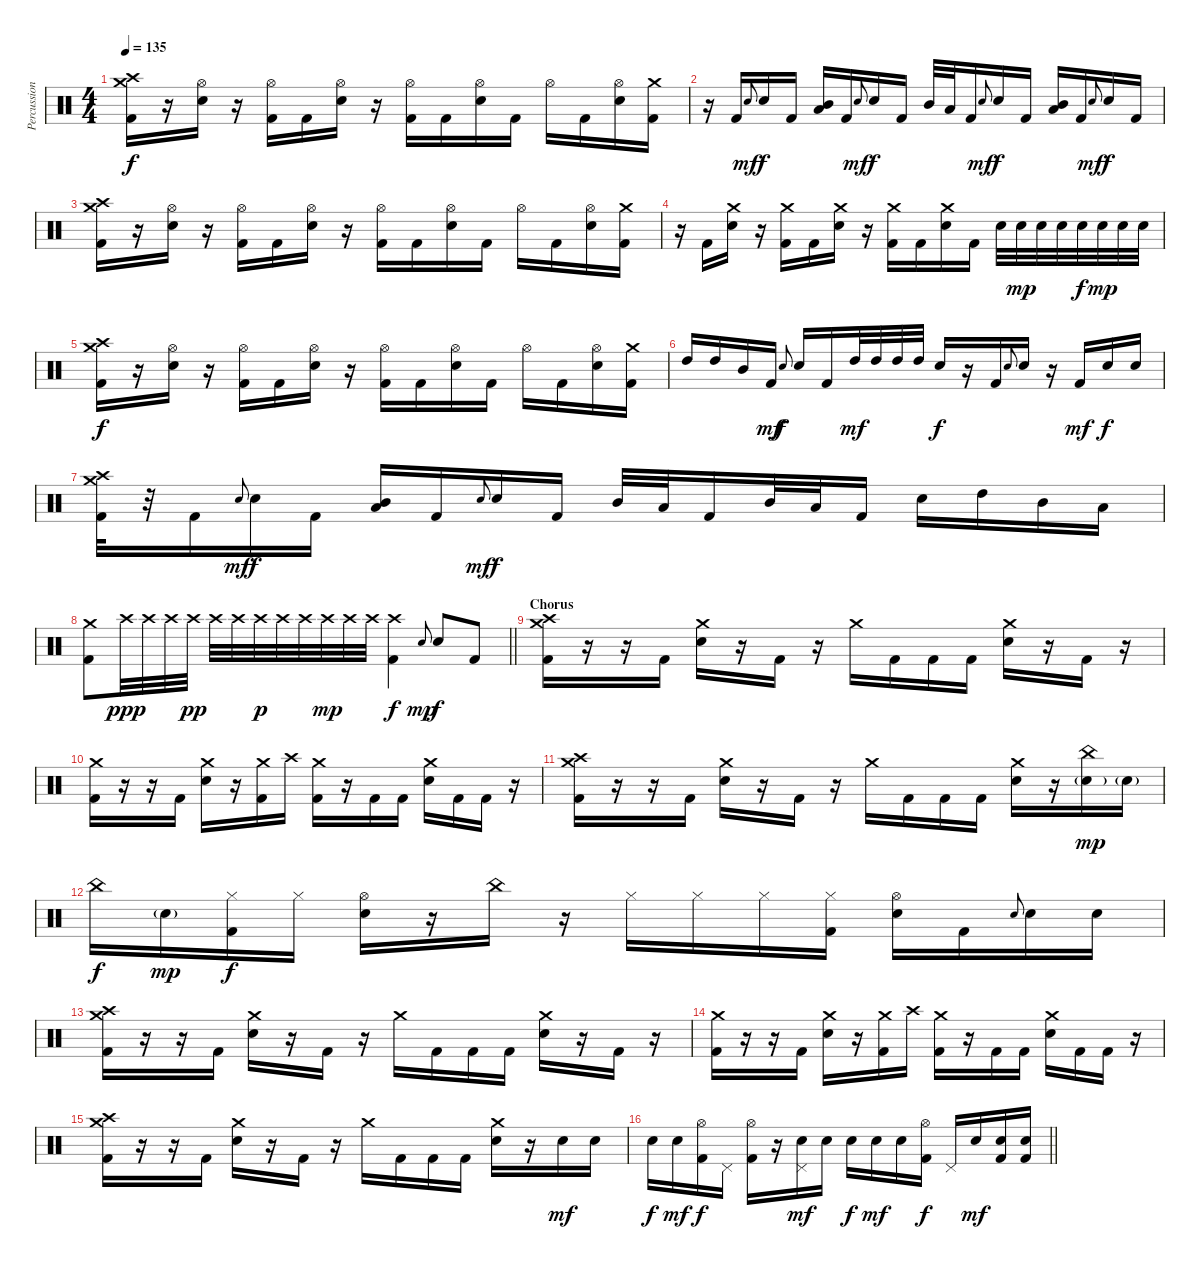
\track ("Percussion" "Percussion") {instrument percussion}
\staff {score}
\articulation defaults
\ts (4 4)
\tempo 135
\clef neutral
\ks c
("Crash high (hit)" "Crash medium (hit)" "Kick (hit) 2").16{dy f} r.16 ("Hi-Hat (open)" "Electric Snare (hit)").16 r.16 ("Hi-Hat (open)" "Kick (hit) 2").16 "Kick (hit) 2".16 ("Hi-Hat (open)" "Electric Snare (hit)").16 r.16 ("Hi-Hat (open)" "Kick (hit) 2").16 "Kick (hit) 2".16 ("Hi-Hat (open)" "Electric Snare (hit)").16 "Kick (hit) 2".16 "Hi-Hat (open)".16 "Kick (hit) 2".16 ("Hi-Hat (open)" "Electric Snare (hit)").16 ("Crash medium (hit)" "Kick (hit) 2").16 |
r.16 "Kick (hit) 2".16 "Electric Snare (hit)".8{gr onbeat dy mf} "Electric Snare (hit)".16{dy f} "Kick (hit) 2".16 ("Mid Tom (hit)" "Low Tom (hit)").16 "Kick (hit) 2".16 "Electric Snare (hit)".8{gr onbeat dy mf} "Electric Snare (hit)".16{dy f} "Kick (hit) 2".16 "Mid Tom (hit)".32 "Low Tom (hit)".32 "Kick (hit) 2".16 "Electric Snare (hit)".8{gr onbeat dy mf} "Electric Snare (hit)".16{dy f} "Kick (hit) 2".16 ("Mid Tom (hit)" "Low Tom (hit)").16 "Kick (hit) 2".16 "Electric Snare (hit)".8{gr onbeat dy mf} "Electric Snare (hit)".16{dy f} "Kick (hit) 2".16 |
("Crash high (hit)" "Crash medium (hit)" "Kick (hit) 2").16 r.16 ("Hi-Hat (open)" "Electric Snare (hit)").16 r.16 ("Hi-Hat (open)" "Kick (hit) 2").16 "Kick (hit) 2".16 ("Hi-Hat (open)" "Electric Snare (hit)").16 r.16 ("Hi-Hat (open)" "Kick (hit) 2").16 "Kick (hit) 2".16 ("Hi-Hat (open)" "Electric Snare (hit)").16 "Kick (hit) 2".16 "Hi-Hat (open)".16 "Kick (hit) 2".16 ("Hi-Hat (open)" "Electric Snare (hit)").16 ("Crash medium (hit)" "Kick (hit) 2").16 |
r.16 "Kick (hit) 2".16 ("Crash medium (hit)" "Electric Snare (hit)").16 r.16 ("Crash medium (hit)" "Kick (hit) 2").16 "Kick (hit) 2".16 ("Crash medium (hit)" "Electric Snare (hit)").16 r.16 ("Crash medium (hit)" "Kick (hit) 2").16 "Kick (hit) 2".16 ("Crash medium (hit)" "Electric Snare (hit)").16 "Kick (hit) 2".16 "Electric Snare (hit)".32 "Electric Snare (hit)".32{dy mp} "Electric Snare (hit)".32 "Electric Snare (hit)".32 "Electric Snare (hit)".32{dy f} "Electric Snare (hit)".32{dy mp} "Electric Snare (hit)".32 "Electric Snare (hit)".32 |
("Crash high (hit)" "Crash medium (hit)" "Kick (hit) 2").16{dy f} r.16 ("Hi-Hat (open)" "Electric Snare (hit)").16 r.16 ("Hi-Hat (open)" "Kick (hit) 2").16 "Kick (hit) 2".16 ("Hi-Hat (open)" "Electric Snare (hit)").16 r.16 ("Hi-Hat (open)" "Kick (hit) 2").16 "Kick (hit) 2".16 ("Hi-Hat (open)" "Electric Snare (hit)").16 "Kick (hit) 2".16 "Hi-Hat (open)".16 "Kick (hit) 2".16 ("Hi-Hat (open)" "Electric Snare (hit)").16 ("Crash medium (hit)" "Kick (hit) 2").16 |
"High Tom (hit)".16 "High Tom (hit)".16 "Mid Tom (hit)".16 "Kick (hit) 2".16{dy mf} "Electric Snare (hit)".8{gr onbeat dy f} "Electric Snare (hit)".16 "Kick (hit) 2".16 "High Tom (hit)".32{dy mf} "High Tom (hit)".32 "High Tom (hit)".32 "High Tom (hit)".32 "Electric Snare (hit)".16{dy f} r.16 "Kick (hit) 2".16 "Electric Snare (hit)".8{gr onbeat} "Electric Snare (hit)".16 r.16 "Kick (hit) 2".16{dy mf} "Electric Snare (hit)".16{dy f} "Electric Snare (hit)".16 |
("Crash high (hit)" "Crash medium (hit)" "Kick (hit) 2").32 r.32 "Kick (hit) 2".16 "Electric Snare (hit)".8{gr onbeat dy mf} "Electric Snare (hit)".16{dy f} "Kick (hit) 2".16 ("Mid Tom (hit)" "Low Tom (hit)").16 "Kick (hit) 2".16 "Electric Snare (hit)".8{gr onbeat dy mf} "Electric Snare (hit)".16{dy f} "Kick (hit) 2".16 "Mid Tom (hit)".32 "Low Tom (hit)".32 "Kick (hit) 2".16 "Mid Tom (hit)".32 "Low Tom (hit)".32 "Kick (hit) 2".16 "Electric Snare (hit)".16 "High Tom (hit)".16 "Mid Tom (hit)".16 "Low Tom (hit)".16 |
\barLineRight lightlight
("Crash medium (hit)" "Kick (hit) 2").8 "Crash high (hit)".32{dy ppp} "Crash high (hit)".32 "Crash high (hit)".32 "Crash high (hit)".32{dy pp} "Crash high (hit)".32 "Crash high (hit)".32 "Crash high (hit)".32{dy p} "Crash high (hit)".32 "Crash high (hit)".32 "Crash high (hit)".32{dy mp} "Crash high (hit)".32 "Crash high (hit)".32 ("Crash high (hit)" "Kick (hit) 2").4{dy f} "Electric Snare (hit)".8{gr onbeat dy mp} "Electric Snare (hit)".8{dy f} "Kick (hit) 2".8 |
\section ("" "Chorus")
("Crash medium (hit)" "Crash high (hit)" "Kick (hit) 2").16 r.16 r.16 "Kick (hit) 2".16 ("Crash medium (hit)" "Electric Snare (hit)").16 r.16 "Kick (hit) 2".16 r.16 "Crash medium (hit)".16 "Kick (hit) 2".16 "Kick (hit) 2".16 "Kick (hit) 2".16 ("Crash medium (hit)" "Electric Snare (hit)").16 r.16 "Kick (hit) 2".16 r.16 |
("Crash medium (hit)" "Kick (hit) 2").16 r.16 r.16 "Kick (hit) 2".16 ("Crash medium (hit)" "Electric Snare (hit)").16 r.16 ("Crash medium (hit)" "Kick (hit) 2").16 "Crash high (hit)".16 ("Crash medium (hit)" "Kick (hit) 2").16 r.16 "Kick (hit) 2".16 "Kick (hit) 2".16 ("Crash medium (hit)" "Electric Snare (hit)").16 "Kick (hit) 2".16 "Kick (hit) 2".16 r.16 |
("Crash medium (hit)" "Crash high (hit)" "Kick (hit) 2").16 r.16 r.16 "Kick (hit) 2".16 ("Crash medium (hit)" "Electric Snare (hit)").16 r.16 "Kick (hit) 2".16 r.16 "Crash medium (hit)".16 "Kick (hit) 2".16 "Kick (hit) 2".16 "Kick (hit) 2".16 ("Crash medium (hit)" "Electric Snare (hit)").16 r.16 ("China (hit)" "Electric Snare (hit)"{g}).16{dy mp} "Electric Snare (hit)"{g}.16 |
"China (hit)".16{dy f} "Electric Snare (hit)"{g}.16{dy mp} ("Hi-Hat (closed)" "Kick (hit) 2").16{dy f} "Hi-Hat (closed)".16 ("Hi-Hat (open)" "Electric Snare (hit)").16 r.16 "China (hit)".16 r.16 "Hi-Hat (closed)".16 "Hi-Hat (closed)".16 "Hi-Hat (closed)".16 ("Hi-Hat (closed)" "Kick (hit) 2").16 ("Hi-Hat (open)" "Electric Snare (hit)").16 "Kick (hit) 2".16 "Electric Snare (hit)".8{gr onbeat} "Electric Snare (hit)".16 "Electric Snare (hit)".16 |
("Crash medium (hit)" "Crash high (hit)" "Kick (hit) 2").16 r.16 r.16 "Kick (hit) 2".16 ("Crash medium (hit)" "Electric Snare (hit)").16 r.16 "Kick (hit) 2".16 r.16 "Crash medium (hit)".16 "Kick (hit) 2".16 "Kick (hit) 2".16 "Kick (hit) 2".16 ("Crash medium (hit)" "Electric Snare (hit)").16 r.16 "Kick (hit) 2".16 r.16 |
("Crash medium (hit)" "Kick (hit) 2").16 r.16 r.16 "Kick (hit) 2".16 ("Crash medium (hit)" "Electric Snare (hit)").16 r.16 ("Crash medium (hit)" "Kick (hit) 2").16 "Crash high (hit)".16 ("Crash medium (hit)" "Kick (hit) 2").16 r.16 "Kick (hit) 2".16 "Kick (hit) 2".16 ("Crash medium (hit)" "Electric Snare (hit)").16 "Kick (hit) 2".16 "Kick (hit) 2".16 r.16 |
("Crash medium (hit)" "Crash high (hit)" "Kick (hit) 2").16 r.16 r.16 "Kick (hit) 2".16 ("Crash medium (hit)" "Electric Snare (hit)").16 r.16 "Kick (hit) 2".16 r.16 "Crash medium (hit)".16 "Kick (hit) 2".16 "Kick (hit) 2".16 "Kick (hit) 2".16 ("Crash medium (hit)" "Electric Snare (hit)").16 r.16 "Electric Snare (hit)".16{dy mf} "Electric Snare (hit)".16 |
\barLineRight lightlight "Electric Snare (hit)".16{dy f} "Electric Snare (hit)".16{dy mf}
("Hi-Hat (open)" "Kick (hit) 2").16{dy f} "Pedal Hi-Hat (hit)".16 ("Hi-Hat (open)" "Kick (hit) 2").16 r.16 ("Pedal Hi-Hat (hit)" "Electric Snare (hit)").16{dy mf} "Electric Snare (hit)".16 "Electric Snare (hit)".16{dy f} "Electric Snare (hit)".16{dy mf} "Electric Snare (hit)".16 ("Hi-Hat (open)" "Kick (hit) 2").16{dy f} "Pedal Hi-Hat (hit)".16 "Electric Snare (hit)".16{dy mf} ("Electric Snare (hit)" "Kick (hit) 2").16 ("Electric Snare (hit)" "Kick (hit) 2").16
